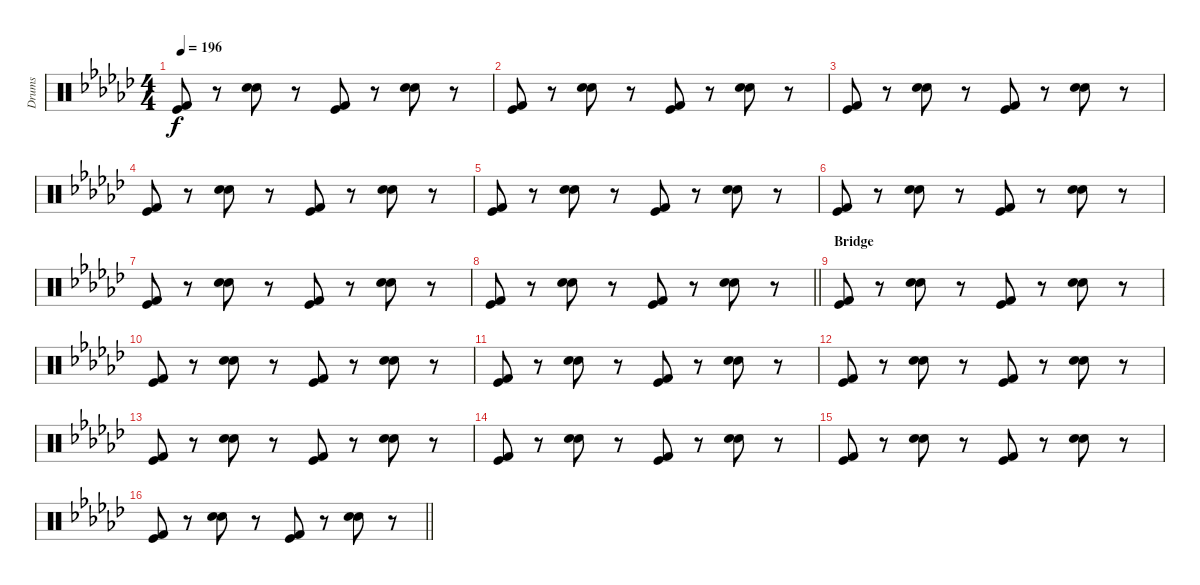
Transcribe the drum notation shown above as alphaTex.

\track ("Drums" "Drums") {instrument percussion}
\staff {score}
\articulation defaults
\ts (4 4)
\tempo 196
\clef neutral
\ks gb
("Kick (hit) 2" "Kick (hit)").8{dy f} r.8 ("Snare (hit) 2" "Electric Snare (hit)").8 r.8 ("Kick (hit) 2" "Kick (hit)").8 r.8 ("Snare (hit) 2" "Electric Snare (hit)").8 r.8 |
("Kick (hit) 2" "Kick (hit)").8 r.8 ("Snare (hit) 2" "Electric Snare (hit)").8 r.8 ("Kick (hit) 2" "Kick (hit)").8 r.8 ("Snare (hit) 2" "Electric Snare (hit)").8 r.8 |
("Kick (hit) 2" "Kick (hit)").8 r.8 ("Snare (hit) 2" "Electric Snare (hit)").8 r.8 ("Kick (hit) 2" "Kick (hit)").8 r.8 ("Snare (hit) 2" "Electric Snare (hit)").8 r.8 |
("Kick (hit) 2" "Kick (hit)").8 r.8 ("Snare (hit) 2" "Electric Snare (hit)").8 r.8 ("Kick (hit) 2" "Kick (hit)").8 r.8 ("Snare (hit) 2" "Electric Snare (hit)").8 r.8 |
("Kick (hit) 2" "Kick (hit)").8 r.8 ("Snare (hit) 2" "Electric Snare (hit)").8 r.8 ("Kick (hit) 2" "Kick (hit)").8 r.8 ("Snare (hit) 2" "Electric Snare (hit)").8 r.8 |
("Kick (hit) 2" "Kick (hit)").8 r.8 ("Snare (hit) 2" "Electric Snare (hit)").8 r.8 ("Kick (hit) 2" "Kick (hit)").8 r.8 ("Snare (hit) 2" "Electric Snare (hit)").8 r.8 |
("Kick (hit) 2" "Kick (hit)").8 r.8 ("Snare (hit) 2" "Electric Snare (hit)").8 r.8 ("Kick (hit) 2" "Kick (hit)").8 r.8 ("Snare (hit) 2" "Electric Snare (hit)").8 r.8 |
\barLineRight lightlight
("Kick (hit) 2" "Kick (hit)").8 r.8 ("Snare (hit) 2" "Electric Snare (hit)").8 r.8 ("Kick (hit) 2" "Kick (hit)").8 r.8 ("Snare (hit) 2" "Electric Snare (hit)").8 r.8 |
\section ("" "Bridge")
("Kick (hit) 2" "Kick (hit)").8 r.8 ("Snare (hit) 2" "Electric Snare (hit)").8 r.8 ("Kick (hit) 2" "Kick (hit)").8 r.8 ("Snare (hit) 2" "Electric Snare (hit)").8 r.8 |
("Kick (hit) 2" "Kick (hit)").8 r.8 ("Snare (hit) 2" "Electric Snare (hit)").8 r.8 ("Kick (hit) 2" "Kick (hit)").8 r.8 ("Snare (hit) 2" "Electric Snare (hit)").8 r.8 |
("Kick (hit) 2" "Kick (hit)").8 r.8 ("Snare (hit) 2" "Electric Snare (hit)").8 r.8 ("Kick (hit) 2" "Kick (hit)").8 r.8 ("Snare (hit) 2" "Electric Snare (hit)").8 r.8 |
("Kick (hit) 2" "Kick (hit)").8 r.8 ("Snare (hit) 2" "Electric Snare (hit)").8 r.8 ("Kick (hit) 2" "Kick (hit)").8 r.8 ("Snare (hit) 2" "Electric Snare (hit)").8 r.8 |
("Kick (hit) 2" "Kick (hit)").8 r.8 ("Snare (hit) 2" "Electric Snare (hit)").8 r.8 ("Kick (hit) 2" "Kick (hit)").8 r.8 ("Snare (hit) 2" "Electric Snare (hit)").8 r.8 |
("Kick (hit) 2" "Kick (hit)").8 r.8 ("Snare (hit) 2" "Electric Snare (hit)").8 r.8 ("Kick (hit) 2" "Kick (hit)").8 r.8 ("Snare (hit) 2" "Electric Snare (hit)").8 r.8 |
("Kick (hit) 2" "Kick (hit)").8 r.8 ("Snare (hit) 2" "Electric Snare (hit)").8 r.8 ("Kick (hit) 2" "Kick (hit)").8 r.8 ("Snare (hit) 2" "Electric Snare (hit)").8 r.8 |
\barLineRight lightlight
("Kick (hit) 2" "Kick (hit)").8 r.8 ("Snare (hit) 2" "Electric Snare (hit)").8 r.8 ("Kick (hit) 2" "Kick (hit)").8 r.8 ("Snare (hit) 2" "Electric Snare (hit)").8 r.8
